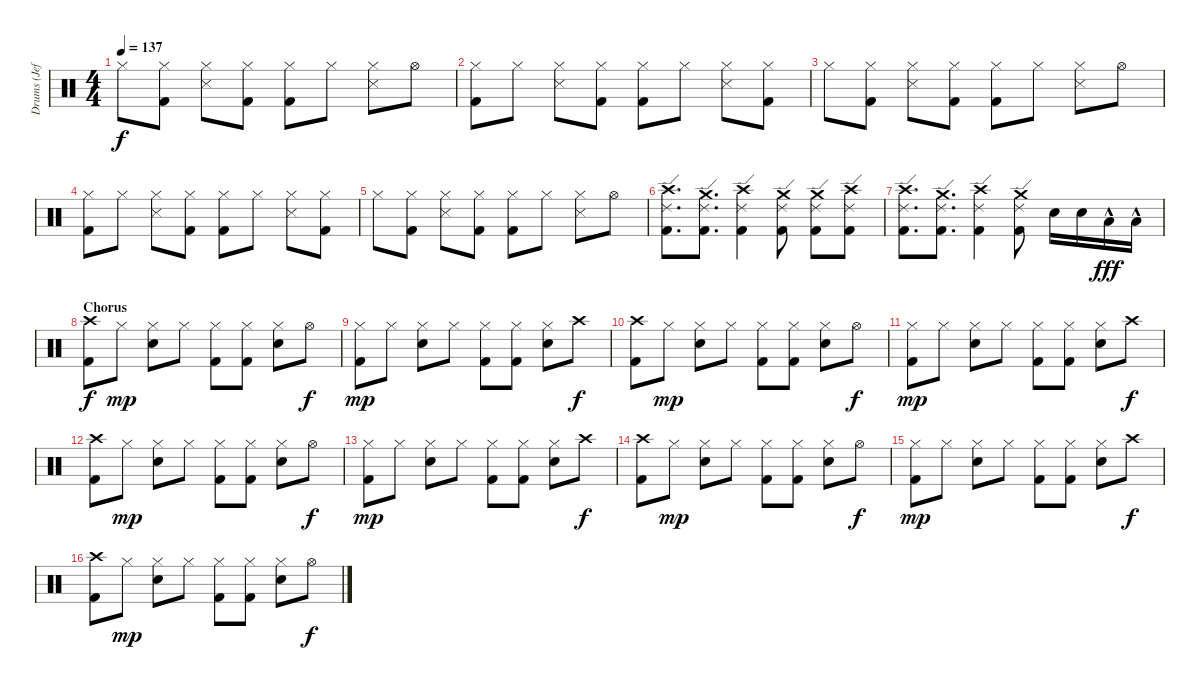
\track ("Drums (Jeff)" "Drums (Jef") {instrument percussion}
\staff {score}
\articulation defaults
\ts (4 4)
\tempo 137
\clef neutral
\ks c "Hi-Hat (closed)".8{dy f}
("Hi-Hat (closed)" "Kick (hit) 2").8 ("Hi-Hat (closed)" "Snare (side stick) 3").8 ("Hi-Hat (closed)" "Kick (hit) 2").8 ("Hi-Hat (closed)" "Kick (hit) 2").8 "Hi-Hat (closed)".8 ("Hi-Hat (closed)" "Snare (side stick) 3").8 "Hi-Hat (open)".8 |
("Hi-Hat (closed)" "Kick (hit) 2").8 "Hi-Hat (closed)".8 ("Hi-Hat (closed)" "Snare (side stick) 3").8 ("Hi-Hat (closed)" "Kick (hit) 2").8 ("Hi-Hat (closed)" "Kick (hit) 2").8 "Hi-Hat (closed)".8 ("Hi-Hat (closed)" "Snare (side stick) 3").8 ("Hi-Hat (closed)" "Kick (hit) 2").8 |
"Hi-Hat (closed)".8 ("Hi-Hat (closed)" "Kick (hit) 2").8 ("Hi-Hat (closed)" "Snare (side stick) 3").8 ("Hi-Hat (closed)" "Kick (hit) 2").8 ("Hi-Hat (closed)" "Kick (hit) 2").8 "Hi-Hat (closed)".8 ("Hi-Hat (closed)" "Snare (side stick) 3").8 "Hi-Hat (open)".8 |
("Hi-Hat (closed)" "Kick (hit) 2").8 "Hi-Hat (closed)".8 ("Hi-Hat (closed)" "Snare (side stick) 3").8 ("Hi-Hat (closed)" "Kick (hit) 2").8 ("Hi-Hat (closed)" "Kick (hit) 2").8 "Hi-Hat (closed)".8 ("Hi-Hat (closed)" "Snare (side stick) 3").8 ("Hi-Hat (closed)" "Kick (hit) 2").8 |
"Hi-Hat (closed)".8 ("Hi-Hat (closed)" "Kick (hit) 2").8 ("Hi-Hat (closed)" "Snare (side stick) 3").8 ("Hi-Hat (closed)" "Kick (hit) 2").8 ("Hi-Hat (closed)" "Kick (hit) 2").8 "Hi-Hat (closed)".8 ("Hi-Hat (closed)" "Snare (side stick) 3").8 "Hi-Hat (open)".8 |
("Ride (edge) 2" "Crash high (hit)" "Kick (hit) 2").8{d volume 12} ("Ride (edge) 2" "Crash medium (hit)" "Kick (hit) 2").8{d} ("Ride (edge) 2" "Crash high (hit)" "Kick (hit) 2").4 ("Ride (edge) 2" "Crash medium (hit)" "Kick (hit) 2").8 ("Ride (edge) 2" "Crash medium (hit)" "Kick (hit) 2").8 ("Ride (edge) 2" "Crash high (hit)" "Kick (hit) 2").8 |
("Ride (edge) 2" "Crash high (hit)" "Kick (hit) 2").8{d} ("Ride (edge) 2" "Crash medium (hit)" "Kick (hit) 2").8{d} ("Ride (edge) 2" "Crash high (hit)" "Kick (hit) 2").4 ("Ride (edge) 2" "Crash medium (hit)" "Kick (hit) 2").8 "Electric Snare (hit)".16 "Electric Snare (hit)".16 "Low Floor Tom (hit)"{hac}.16{dy fff} "Low Floor Tom (hit)"{hac}.16 |
\section ("" "Chorus")
("Crash high (hit)" "Kick (hit) 2").8{dy f} "Hi-Hat (closed)".8{dy mp} ("Hi-Hat (closed)" "Electric Snare (hit)").8 "Hi-Hat (closed)".8 ("Hi-Hat (closed)" "Kick (hit) 2").8 ("Hi-Hat (closed)" "Kick (hit) 2").8 ("Hi-Hat (closed)" "Electric Snare (hit)").8 "Hi-Hat (open)".8{dy f} |
("Hi-Hat (closed)" "Kick (hit) 2").8{dy mp} "Hi-Hat (closed)".8 ("Hi-Hat (closed)" "Electric Snare (hit)").8 "Hi-Hat (closed)".8 ("Hi-Hat (closed)" "Kick (hit) 2").8 ("Hi-Hat (closed)" "Kick (hit) 2").8 ("Hi-Hat (closed)" "Electric Snare (hit)").8 "Crash high (hit)".8{dy f} |
("Crash high (hit)" "Kick (hit) 2").8 "Hi-Hat (closed)".8{dy mp} ("Hi-Hat (closed)" "Electric Snare (hit)").8 "Hi-Hat (closed)".8 ("Hi-Hat (closed)" "Kick (hit) 2").8 ("Hi-Hat (closed)" "Kick (hit) 2").8 ("Hi-Hat (closed)" "Electric Snare (hit)").8 "Hi-Hat (open)".8{dy f} |
("Hi-Hat (closed)" "Kick (hit) 2").8{dy mp} "Hi-Hat (closed)".8 ("Hi-Hat (closed)" "Electric Snare (hit)").8 "Hi-Hat (closed)".8 ("Hi-Hat (closed)" "Kick (hit) 2").8 ("Hi-Hat (closed)" "Kick (hit) 2").8 ("Hi-Hat (closed)" "Electric Snare (hit)").8 "Crash high (hit)".8{dy f} |
("Crash high (hit)" "Kick (hit) 2").8 "Hi-Hat (closed)".8{dy mp} ("Hi-Hat (closed)" "Electric Snare (hit)").8 "Hi-Hat (closed)".8 ("Hi-Hat (closed)" "Kick (hit) 2").8 ("Hi-Hat (closed)" "Kick (hit) 2").8 ("Hi-Hat (closed)" "Electric Snare (hit)").8 "Hi-Hat (open)".8{dy f} |
("Hi-Hat (closed)" "Kick (hit) 2").8{dy mp} "Hi-Hat (closed)".8 ("Hi-Hat (closed)" "Electric Snare (hit)").8 "Hi-Hat (closed)".8 ("Hi-Hat (closed)" "Kick (hit) 2").8 ("Hi-Hat (closed)" "Kick (hit) 2").8 ("Hi-Hat (closed)" "Electric Snare (hit)").8 "Crash high (hit)".8{dy f} |
("Crash high (hit)" "Kick (hit) 2").8 "Hi-Hat (closed)".8{dy mp} ("Hi-Hat (closed)" "Electric Snare (hit)").8 "Hi-Hat (closed)".8 ("Hi-Hat (closed)" "Kick (hit) 2").8 ("Hi-Hat (closed)" "Kick (hit) 2").8 ("Hi-Hat (closed)" "Electric Snare (hit)").8 "Hi-Hat (open)".8{dy f} |
("Hi-Hat (closed)" "Kick (hit) 2").8{dy mp} "Hi-Hat (closed)".8 ("Hi-Hat (closed)" "Electric Snare (hit)").8 "Hi-Hat (closed)".8 ("Hi-Hat (closed)" "Kick (hit) 2").8 ("Hi-Hat (closed)" "Kick (hit) 2").8 ("Hi-Hat (closed)" "Electric Snare (hit)").8 "Crash high (hit)".8{dy f} |
("Crash high (hit)" "Kick (hit) 2").8 "Hi-Hat (closed)".8{dy mp} ("Hi-Hat (closed)" "Electric Snare (hit)").8 "Hi-Hat (closed)".8 ("Hi-Hat (closed)" "Kick (hit) 2").8 ("Hi-Hat (closed)" "Kick (hit) 2").8 ("Hi-Hat (closed)" "Electric Snare (hit)").8 "Hi-Hat (open)".8{dy f}
